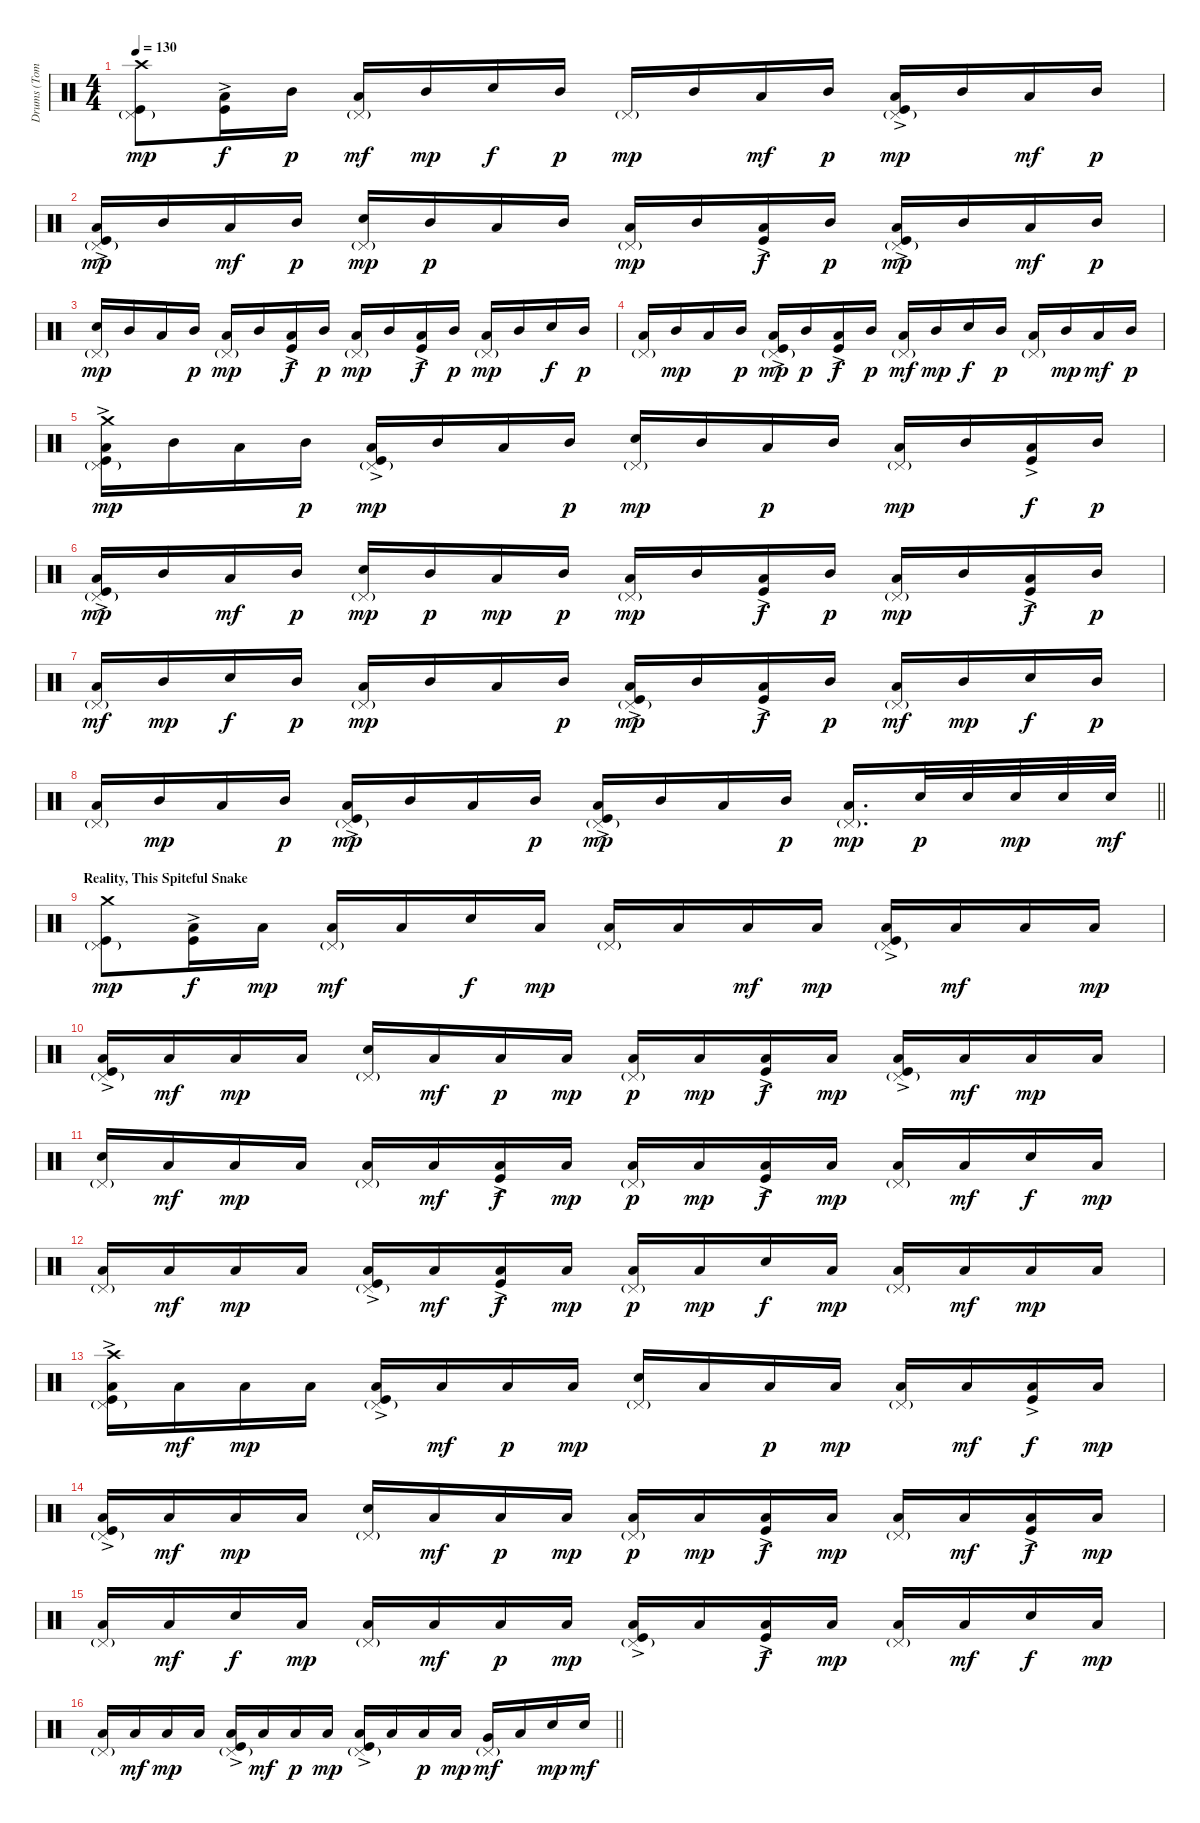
\track ("Drums (Tomas Haake)" "Drums (Tom") {instrument percussion}
\staff {score}
\articulation defaults
\ts (4 4)
\tempo 130
\clef neutral
\ks c
("Crash high (hit)" "Pedal Hi-Hat (hit)"{g} "Kick (hit)").8{dy mp} ("Low Floor Tom (hit)"{ac} "Kick (hit)").16{dy f} "Mid Tom (hit)".16{dy p} ("Pedal Hi-Hat (hit)"{g} "Low Floor Tom (hit)").16{dy mf} "Mid Tom (hit)".16{dy mp} "Electric Snare (hit)".16{dy f} "Mid Tom (hit)".16{dy p} "Pedal Hi-Hat (hit)"{g}.16{dy mp} "Mid Tom (hit)".16 "Low Floor Tom (hit)".16{dy mf} "Mid Tom (hit)".16{dy p} ("Pedal Hi-Hat (hit)"{g} "Low Floor Tom (hit)"{ac} "Kick (hit)").16{dy mp} "Mid Tom (hit)".16 "Low Floor Tom (hit)".16{dy mf} "Mid Tom (hit)".16{dy p} |
("Pedal Hi-Hat (hit)"{g} "Low Floor Tom (hit)"{ac} "Kick (hit)").16{dy mp} "Mid Tom (hit)".16 "Low Floor Tom (hit)".16{dy mf} "Mid Tom (hit)".16{dy p} ("Pedal Hi-Hat (hit)"{g} "Electric Snare (hit)").16{dy mp} "Mid Tom (hit)".16{dy p} "Low Floor Tom (hit)".16 "Mid Tom (hit)".16 ("Pedal Hi-Hat (hit)"{g} "Low Floor Tom (hit)").16{dy mp} "Mid Tom (hit)".16 ("Low Floor Tom (hit)"{ac} "Kick (hit)").16{dy f} "Mid Tom (hit)".16{dy p} ("Pedal Hi-Hat (hit)"{g} "Low Floor Tom (hit)"{ac} "Kick (hit)").16{dy mp} "Mid Tom (hit)".16 "Low Floor Tom (hit)".16{dy mf} "Mid Tom (hit)".16{dy p} |
("Pedal Hi-Hat (hit)"{g} "Electric Snare (hit)").16{dy mp} "Mid Tom (hit)".16 "Low Floor Tom (hit)".16 "Mid Tom (hit)".16{dy p} ("Pedal Hi-Hat (hit)"{g} "Low Floor Tom (hit)").16{dy mp} "Mid Tom (hit)".16 ("Low Floor Tom (hit)"{ac} "Kick (hit)").16{dy f} "Mid Tom (hit)".16{dy p} ("Pedal Hi-Hat (hit)"{g} "Low Floor Tom (hit)").16{dy mp} "Mid Tom (hit)".16 ("Low Floor Tom (hit)"{ac} "Kick (hit)").16{dy f} "Mid Tom (hit)".16{dy p} ("Pedal Hi-Hat (hit)"{g} "Low Floor Tom (hit)").16{dy mp} "Mid Tom (hit)".16 "Electric Snare (hit)".16{dy f} "Mid Tom (hit)".16{dy p} |
("Pedal Hi-Hat (hit)"{g} "Low Floor Tom (hit)").16 "Mid Tom (hit)".16{dy mp} "Low Floor Tom (hit)".16 "Mid Tom (hit)".16{dy p} ("Pedal Hi-Hat (hit)"{g} "Low Floor Tom (hit)"{ac} "Kick (hit)").16{dy mp} "Mid Tom (hit)".16{dy p} ("Low Floor Tom (hit)"{ac} "Kick (hit)").16{dy f} "Mid Tom (hit)".16{dy p} ("Pedal Hi-Hat (hit)"{g} "Low Floor Tom (hit)").16{dy mf} "Mid Tom (hit)".16{dy mp} "Electric Snare (hit)".16{dy f} "Mid Tom (hit)".16{dy p} ("Pedal Hi-Hat (hit)"{g} "Low Floor Tom (hit)").16 "Mid Tom (hit)".16{dy mp} "Low Floor Tom (hit)".16{dy mf} "Mid Tom (hit)".16{dy p} |
("Crash medium (hit)" "Pedal Hi-Hat (hit)"{g} "Low Floor Tom (hit)"{ac} "Kick (hit)").16{dy mp} "Mid Tom (hit)".16 "Low Floor Tom (hit)".16 "Mid Tom (hit)".16{dy p} ("Pedal Hi-Hat (hit)"{g} "Low Floor Tom (hit)"{ac} "Kick (hit)").16{dy mp} "Mid Tom (hit)".16 "Low Floor Tom (hit)".16 "Mid Tom (hit)".16{dy p} ("Pedal Hi-Hat (hit)"{g} "Electric Snare (hit)").16{dy mp} "Mid Tom (hit)".16 "Low Floor Tom (hit)".16{dy p} "Mid Tom (hit)".16 ("Pedal Hi-Hat (hit)"{g} "Low Floor Tom (hit)").16{dy mp} "Mid Tom (hit)".16 ("Low Floor Tom (hit)"{ac} "Kick (hit)").16{dy f} "Mid Tom (hit)".16{dy p} |
("Pedal Hi-Hat (hit)"{g} "Low Floor Tom (hit)"{ac} "Kick (hit)").16{dy mp} "Mid Tom (hit)".16 "Low Floor Tom (hit)".16{dy mf} "Mid Tom (hit)".16{dy p} ("Pedal Hi-Hat (hit)"{g} "Electric Snare (hit)").16{dy mp} "Mid Tom (hit)".16{dy p} "Low Floor Tom (hit)".16{dy mp} "Mid Tom (hit)".16{dy p} ("Pedal Hi-Hat (hit)"{g} "Low Floor Tom (hit)").16{dy mp} "Mid Tom (hit)".16 ("Low Floor Tom (hit)"{ac} "Kick (hit)").16{dy f} "Mid Tom (hit)".16{dy p} ("Pedal Hi-Hat (hit)"{g} "Low Floor Tom (hit)").16{dy mp} "Mid Tom (hit)".16 ("Low Floor Tom (hit)"{ac} "Kick (hit)").16{dy f} "Mid Tom (hit)".16{dy p} |
("Pedal Hi-Hat (hit)"{g} "Low Floor Tom (hit)").16{dy mf} "Mid Tom (hit)".16{dy mp} "Electric Snare (hit)".16{dy f} "Mid Tom (hit)".16{dy p} ("Pedal Hi-Hat (hit)"{g} "Low Floor Tom (hit)").16{dy mp} "Mid Tom (hit)".16 "Low Floor Tom (hit)".16 "Mid Tom (hit)".16{dy p} ("Pedal Hi-Hat (hit)"{g} "Low Floor Tom (hit)"{ac} "Kick (hit)").16{dy mp} "Mid Tom (hit)".16 ("Low Floor Tom (hit)"{ac} "Kick (hit)").16{dy f} "Mid Tom (hit)".16{dy p} ("Pedal Hi-Hat (hit)"{g} "Low Floor Tom (hit)").16{dy mf} "Mid Tom (hit)".16{dy mp} "Electric Snare (hit)".16{dy f} "Mid Tom (hit)".16{dy p} |
\barLineRight lightlight
("Pedal Hi-Hat (hit)"{g} "Low Floor Tom (hit)").16 "Mid Tom (hit)".16{dy mp} "Low Floor Tom (hit)".16 "Mid Tom (hit)".16{dy p} ("Pedal Hi-Hat (hit)"{g} "Low Floor Tom (hit)"{ac} "Kick (hit)").16{dy mp} "Mid Tom (hit)".16 "Low Floor Tom (hit)".16 "Mid Tom (hit)".16{dy p} ("Pedal Hi-Hat (hit)"{g} "Low Floor Tom (hit)"{ac} "Kick (hit)").16{dy mp} "Mid Tom (hit)".16 "Low Floor Tom (hit)".16 "Mid Tom (hit)".16{dy p} ("Pedal Hi-Hat (hit)"{g} "Low Tom (hit)").16{d dy mp} "Electric Snare (hit)".32{dy p} "Electric Snare (hit)".32 "Electric Snare (hit)".32{dy mp} "Electric Snare (hit)".32 "Electric Snare (hit)".32{dy mf} |
\section ("" "Reality, This Spiteful Snake")
("Crash medium (hit)" "Pedal Hi-Hat (hit)"{g} "Kick (hit)").8{dy mp} ("Low Floor Tom (hit)"{ac} "Kick (hit)").16{dy f} "Low Tom (hit)".16{dy mp} ("Pedal Hi-Hat (hit)"{g} "Low Floor Tom (hit)").16{dy mf} "Low Tom (hit)".16 "Electric Snare (hit)".16{dy f} "Low Tom (hit)".16{dy mp} ("Pedal Hi-Hat (hit)"{g} "Low Floor Tom (hit)").16 "Low Tom (hit)".16 "Low Floor Tom (hit)".16{dy mf} "Low Tom (hit)".16{dy mp} ("Pedal Hi-Hat (hit)"{g} "Low Floor Tom (hit)"{ac} "Kick (hit)").16 "Low Tom (hit)".16{dy mf} "Low Floor Tom (hit)".16 "Low Tom (hit)".16{dy mp} |
("Pedal Hi-Hat (hit)"{g} "Low Floor Tom (hit)"{ac} "Kick (hit)").16 "Low Tom (hit)".16{dy mf} "Low Floor Tom (hit)".16{dy mp} "Low Tom (hit)".16 ("Pedal Hi-Hat (hit)"{g} "Electric Snare (hit)").16 "Low Tom (hit)".16{dy mf} "Low Floor Tom (hit)".16{dy p} "Low Tom (hit)".16{dy mp} ("Pedal Hi-Hat (hit)"{g} "Low Floor Tom (hit)").16{dy p} "Low Tom (hit)".16{dy mp} ("Low Floor Tom (hit)"{ac} "Kick (hit)").16{dy f} "Low Tom (hit)".16{dy mp} ("Pedal Hi-Hat (hit)"{g} "Low Floor Tom (hit)"{ac} "Kick (hit)").16 "Low Tom (hit)".16{dy mf} "Low Floor Tom (hit)".16{dy mp} "Low Tom (hit)".16 |
("Pedal Hi-Hat (hit)"{g} "Electric Snare (hit)").16 "Low Tom (hit)".16{dy mf} "Low Floor Tom (hit)".16{dy mp} "Low Tom (hit)".16 ("Pedal Hi-Hat (hit)"{g} "Low Floor Tom (hit)").16 "Low Tom (hit)".16{dy mf} ("Low Floor Tom (hit)"{ac} "Kick (hit)").16{dy f} "Low Tom (hit)".16{dy mp} ("Pedal Hi-Hat (hit)"{g} "Low Floor Tom (hit)").16{dy p} "Low Tom (hit)".16{dy mp} ("Low Floor Tom (hit)"{ac} "Kick (hit)").16{dy f} "Low Tom (hit)".16{dy mp} ("Pedal Hi-Hat (hit)"{g} "Low Floor Tom (hit)").16 "Low Tom (hit)".16{dy mf} "Electric Snare (hit)".16{dy f} "Low Tom (hit)".16{dy mp} |
("Pedal Hi-Hat (hit)"{g} "Low Floor Tom (hit)").16 "Low Tom (hit)".16{dy mf} "Low Floor Tom (hit)".16{dy mp} "Low Tom (hit)".16 ("Pedal Hi-Hat (hit)"{g} "Low Floor Tom (hit)"{ac} "Kick (hit)").16 "Low Tom (hit)".16{dy mf} ("Low Floor Tom (hit)"{ac} "Kick (hit)").16{dy f} "Low Tom (hit)".16{dy mp} ("Pedal Hi-Hat (hit)"{g} "Low Floor Tom (hit)").16{dy p} "Low Tom (hit)".16{dy mp} "Electric Snare (hit)".16{dy f} "Low Tom (hit)".16{dy mp} ("Pedal Hi-Hat (hit)"{g} "Low Floor Tom (hit)").16 "Low Tom (hit)".16{dy mf} "Low Floor Tom (hit)".16{dy mp} "Low Tom (hit)".16 |
("Crash high (hit)" "Pedal Hi-Hat (hit)"{g} "Low Floor Tom (hit)"{ac} "Kick (hit)").16 "Low Tom (hit)".16{dy mf} "Low Floor Tom (hit)".16{dy mp} "Low Tom (hit)".16 ("Pedal Hi-Hat (hit)"{g} "Low Floor Tom (hit)"{ac} "Kick (hit)").16 "Low Tom (hit)".16{dy mf} "Low Floor Tom (hit)".16{dy p} "Low Tom (hit)".16{dy mp} ("Pedal Hi-Hat (hit)"{g} "Electric Snare (hit)").16 "Low Tom (hit)".16 "Low Floor Tom (hit)".16{dy p} "Low Tom (hit)".16{dy mp} ("Pedal Hi-Hat (hit)"{g} "Low Floor Tom (hit)").16 "Low Tom (hit)".16{dy mf} ("Low Floor Tom (hit)"{ac} "Kick (hit)").16{dy f} "Low Tom (hit)".16{dy mp} |
("Pedal Hi-Hat (hit)"{g} "Low Floor Tom (hit)"{ac} "Kick (hit)").16 "Low Tom (hit)".16{dy mf} "Low Floor Tom (hit)".16{dy mp} "Low Tom (hit)".16 ("Pedal Hi-Hat (hit)"{g} "Electric Snare (hit)").16 "Low Tom (hit)".16{dy mf} "Low Floor Tom (hit)".16{dy p} "Low Tom (hit)".16{dy mp} ("Pedal Hi-Hat (hit)"{g} "Low Floor Tom (hit)").16{dy p} "Low Tom (hit)".16{dy mp} ("Low Floor Tom (hit)"{ac} "Kick (hit)").16{dy f} "Low Tom (hit)".16{dy mp} ("Pedal Hi-Hat (hit)"{g} "Low Floor Tom (hit)").16 "Low Tom (hit)".16{dy mf} ("Low Floor Tom (hit)"{ac} "Kick (hit)").16{dy f} "Low Tom (hit)".16{dy mp} |
("Pedal Hi-Hat (hit)"{g} "Low Floor Tom (hit)").16 "Low Tom (hit)".16{dy mf} "Electric Snare (hit)".16{dy f} "Low Tom (hit)".16{dy mp} ("Pedal Hi-Hat (hit)"{g} "Low Floor Tom (hit)").16 "Low Tom (hit)".16{dy mf} "Low Floor Tom (hit)".16{dy p} "Low Tom (hit)".16{dy mp} ("Pedal Hi-Hat (hit)"{g} "Low Floor Tom (hit)"{ac} "Kick (hit)").16 "Low Tom (hit)".16 ("Low Floor Tom (hit)"{ac} "Kick (hit)").16{dy f} "Low Tom (hit)".16{dy mp} ("Pedal Hi-Hat (hit)"{g} "Low Floor Tom (hit)").16 "Low Tom (hit)".16{dy mf} "Electric Snare (hit)".16{dy f} "Low Tom (hit)".16{dy mp} |
\barLineRight lightlight
("Pedal Hi-Hat (hit)"{g} "Low Floor Tom (hit)").16 "Low Tom (hit)".16{dy mf} "Low Floor Tom (hit)".16{dy mp} "Low Tom (hit)".16 ("Pedal Hi-Hat (hit)"{g} "Low Floor Tom (hit)"{ac} "Kick (hit)").16 "Low Tom (hit)".16{dy mf} "Low Floor Tom (hit)".16{dy p} "Low Tom (hit)".16{dy mp} ("Pedal Hi-Hat (hit)"{g} "Low Floor Tom (hit)"{ac} "Kick (hit)").16 "Low Tom (hit)".16 "Low Floor Tom (hit)".16{dy p} "Low Tom (hit)".16{dy mp} ("Pedal Hi-Hat (hit)"{g} "Very Low Tom (hit)").16{dy mf} "Low Tom (hit)".16 "Electric Snare (hit)".16{dy mp} "Electric Snare (hit)".16{dy mf}
